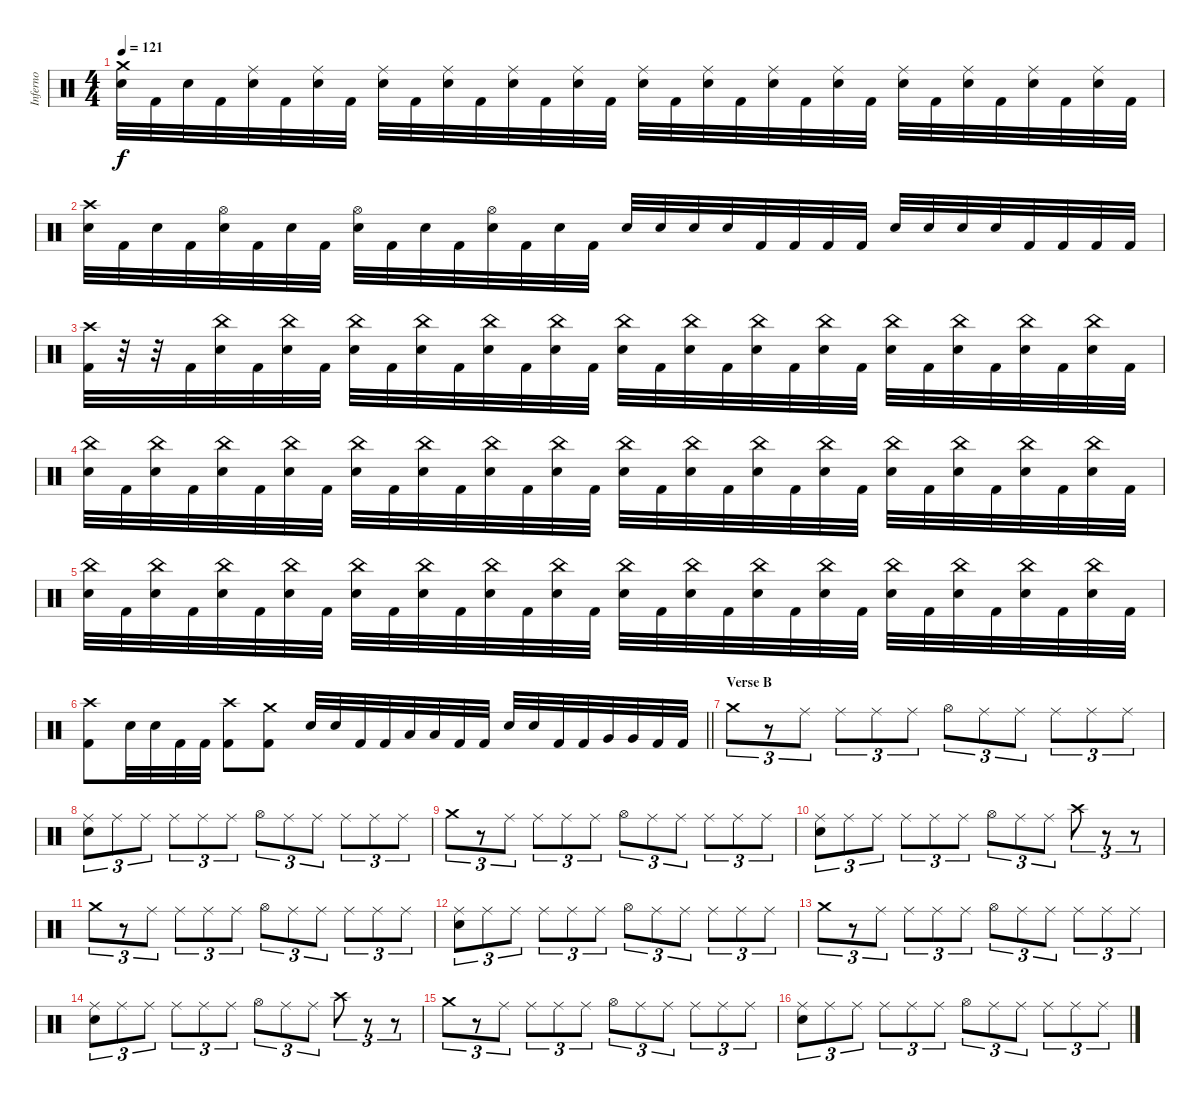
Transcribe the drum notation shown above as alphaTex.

\track ("Inferno" "Inferno") {instrument percussion}
\staff {score}
\articulation defaults
\ts (4 4)
\tempo 121
\clef neutral
\ks c
("Crash medium (hit)" "Snare (hit) 2").32{dy f} "Kick (hit) 2".32 "Snare (hit) 2".32 "Kick (hit) 2".32 ("Ride (middle)" "Snare (hit) 2").32 "Kick (hit) 2".32 ("Ride (middle)" "Snare (hit) 2").32 "Kick (hit) 2".32 ("Ride (middle)" "Snare (hit) 2").32 "Kick (hit) 2".32 ("Ride (middle)" "Snare (hit) 2").32 "Kick (hit) 2".32 ("Ride (middle)" "Snare (hit) 2").32 "Kick (hit) 2".32 ("Ride (middle)" "Snare (hit) 2").32 "Kick (hit) 2".32 ("Ride (middle)" "Snare (hit) 2").32 "Kick (hit) 2".32 ("Ride (middle)" "Snare (hit) 2").32 "Kick (hit) 2".32 ("Ride (middle)" "Snare (hit) 2").32 "Kick (hit) 2".32 ("Ride (middle)" "Snare (hit) 2").32 "Kick (hit) 2".32 ("Ride (middle)" "Snare (hit) 2").32 "Kick (hit) 2".32 ("Ride (middle)" "Snare (hit) 2").32 "Kick (hit) 2".32 ("Ride (middle)" "Snare (hit) 2").32 "Kick (hit) 2".32 ("Ride (middle)" "Snare (hit) 2").32 "Kick (hit) 2".32 |
("Crash high (hit)" "Snare (hit) 2").32 "Kick (hit) 2".32 "Snare (hit) 2".32 "Kick (hit) 2".32 ("Hi-Hat (open)" "Snare (hit) 2").32 "Kick (hit) 2".32 "Snare (hit) 2".32 "Kick (hit) 2".32 ("Hi-Hat (open)" "Snare (hit) 2").32 "Kick (hit) 2".32 "Snare (hit) 2".32 "Kick (hit) 2".32 ("Hi-Hat (open)" "Snare (hit) 2").32 "Kick (hit) 2".32 "Snare (hit) 2".32 "Kick (hit) 2".32 "Snare (hit) 2".32 "Snare (hit) 2".32 "Snare (hit) 2".32 "Snare (hit) 2".32 "Kick (hit) 2".32 "Kick (hit) 2".32 "Kick (hit) 2".32 "Kick (hit) 2".32 "Snare (hit) 2".32 "Snare (hit) 2".32 "Snare (hit) 2".32 "Snare (hit) 2".32 "Kick (hit) 2".32 "Kick (hit) 2".32 "Kick (hit) 2".32 "Kick (hit) 2".32 |
("Crash high (hit)" "Kick (hit) 2").32 r.32 r.32 "Kick (hit) 2".32 ("China (hit)" "Snare (hit) 2").32 "Kick (hit) 2".32 ("China (hit)" "Snare (hit) 2").32 "Kick (hit) 2".32 ("China (hit)" "Snare (hit) 2").32 "Kick (hit) 2".32 ("China (hit)" "Snare (hit) 2").32 "Kick (hit) 2".32 ("China (hit)" "Snare (hit) 2").32 "Kick (hit) 2".32 ("China (hit)" "Snare (hit) 2").32 "Kick (hit) 2".32 ("China (hit)" "Snare (hit) 2").32 "Kick (hit) 2".32 ("China (hit)" "Snare (hit) 2").32 "Kick (hit) 2".32 ("China (hit)" "Snare (hit) 2").32 "Kick (hit) 2".32 ("China (hit)" "Snare (hit) 2").32 "Kick (hit) 2".32 ("China (hit)" "Snare (hit) 2").32 "Kick (hit) 2".32 ("China (hit)" "Snare (hit) 2").32 "Kick (hit) 2".32 ("China (hit)" "Snare (hit) 2").32 "Kick (hit) 2".32 ("China (hit)" "Snare (hit) 2").32 "Kick (hit) 2".32 |
("China (hit)" "Snare (hit) 2").32 "Kick (hit) 2".32 ("China (hit)" "Snare (hit) 2").32 "Kick (hit) 2".32 ("China (hit)" "Snare (hit) 2").32 "Kick (hit) 2".32 ("China (hit)" "Snare (hit) 2").32 "Kick (hit) 2".32 ("China (hit)" "Snare (hit) 2").32 "Kick (hit) 2".32 ("China (hit)" "Snare (hit) 2").32 "Kick (hit) 2".32 ("China (hit)" "Snare (hit) 2").32 "Kick (hit) 2".32 ("China (hit)" "Snare (hit) 2").32 "Kick (hit) 2".32 ("China (hit)" "Snare (hit) 2").32 "Kick (hit) 2".32 ("China (hit)" "Snare (hit) 2").32 "Kick (hit) 2".32 ("China (hit)" "Snare (hit) 2").32 "Kick (hit) 2".32 ("China (hit)" "Snare (hit) 2").32 "Kick (hit) 2".32 ("China (hit)" "Snare (hit) 2").32 "Kick (hit) 2".32 ("China (hit)" "Snare (hit) 2").32 "Kick (hit) 2".32 ("China (hit)" "Snare (hit) 2").32 "Kick (hit) 2".32 ("China (hit)" "Snare (hit) 2").32 "Kick (hit) 2".32 |
("China (hit)" "Snare (hit) 2").32 "Kick (hit) 2".32 ("China (hit)" "Snare (hit) 2").32 "Kick (hit) 2".32 ("China (hit)" "Snare (hit) 2").32 "Kick (hit) 2".32 ("China (hit)" "Snare (hit) 2").32 "Kick (hit) 2".32 ("China (hit)" "Snare (hit) 2").32 "Kick (hit) 2".32 ("China (hit)" "Snare (hit) 2").32 "Kick (hit) 2".32 ("China (hit)" "Snare (hit) 2").32 "Kick (hit) 2".32 ("China (hit)" "Snare (hit) 2").32 "Kick (hit) 2".32 ("China (hit)" "Snare (hit) 2").32 "Kick (hit) 2".32 ("China (hit)" "Snare (hit) 2").32 "Kick (hit) 2".32 ("China (hit)" "Snare (hit) 2").32 "Kick (hit) 2".32 ("China (hit)" "Snare (hit) 2").32 "Kick (hit) 2".32 ("China (hit)" "Snare (hit) 2").32 "Kick (hit) 2".32 ("China (hit)" "Snare (hit) 2").32 "Kick (hit) 2".32 ("China (hit)" "Snare (hit) 2").32 "Kick (hit) 2".32 ("China (hit)" "Snare (hit) 2").32 "Kick (hit) 2".32 |
\barLineRight lightlight
("Crash high (hit)" "Kick (hit) 2").8 "Snare (hit) 2".32 "Snare (hit) 2".32 "Kick (hit) 2".32 "Kick (hit) 2".32 ("Crash high (hit)" "Kick (hit) 2").8 ("Crash medium (hit)" "Kick (hit) 2").8 "Snare (hit) 2".32 "Snare (hit) 2".32 "Kick (hit) 2".32 "Kick (hit) 2".32 "Low Tom (hit)".32 "Low Tom (hit)".32 "Kick (hit) 2".32 "Kick (hit) 2".32 "Snare (hit) 2".32 "Snare (hit) 2".32 "Kick (hit) 2".32 "Kick (hit) 2".32 "Very Low Tom (hit)".32 "Very Low Tom (hit)".32 "Kick (hit) 2".32 "Kick (hit) 2".32 |
\section ("" "Verse B")
"Crash medium (hit)".8{tu (3 2)} r.8{tu (3 2)} "Ride (middle)".8{tu (3 2)} "Ride (middle)".8{tu (3 2)} "Ride (middle)".8{tu (3 2)} "Ride (middle)".8{tu (3 2)} "Hi-Hat (open)".8{tu (3 2)} "Ride (middle)".8{tu (3 2)} "Ride (middle)".8{tu (3 2)} "Ride (middle)".8{tu (3 2)} "Ride (middle)".8{tu (3 2)} "Ride (middle)".8{tu (3 2)} |
("Ride (middle)" "Snare (hit) 2").8{tu (3 2)} "Ride (middle)".8{tu (3 2)} "Ride (middle)".8{tu (3 2)} "Ride (middle)".8{tu (3 2)} "Ride (middle)".8{tu (3 2)} "Ride (middle)".8{tu (3 2)} "Hi-Hat (open)".8{tu (3 2)} "Ride (middle)".8{tu (3 2)} "Ride (middle)".8{tu (3 2)} "Ride (middle)".8{tu (3 2)} "Ride (middle)".8{tu (3 2)} "Ride (middle)".8{tu (3 2)} |
"Crash medium (hit)".8{tu (3 2)} r.8{tu (3 2)} "Ride (middle)".8{tu (3 2)} "Ride (middle)".8{tu (3 2)} "Ride (middle)".8{tu (3 2)} "Ride (middle)".8{tu (3 2)} "Hi-Hat (open)".8{tu (3 2)} "Ride (middle)".8{tu (3 2)} "Ride (middle)".8{tu (3 2)} "Ride (middle)".8{tu (3 2)} "Ride (middle)".8{tu (3 2)} "Ride (middle)".8{tu (3 2)} |
("Ride (middle)" "Snare (hit) 2").8{tu (3 2)} "Ride (middle)".8{tu (3 2)} "Ride (middle)".8{tu (3 2)} "Ride (middle)".8{tu (3 2)} "Ride (middle)".8{tu (3 2)} "Ride (middle)".8{tu (3 2)} "Hi-Hat (open)".8{tu (3 2)} "Ride (middle)".8{tu (3 2)} "Ride (middle)".8{tu (3 2)} "Crash high (hit)".8{tu (3 2)} r.8{tu (3 2)} r.8{tu (3 2)} |
"Crash medium (hit)".8{tu (3 2)} r.8{tu (3 2)} "Ride (middle)".8{tu (3 2)} "Ride (middle)".8{tu (3 2)} "Ride (middle)".8{tu (3 2)} "Ride (middle)".8{tu (3 2)} "Hi-Hat (open)".8{tu (3 2)} "Ride (middle)".8{tu (3 2)} "Ride (middle)".8{tu (3 2)} "Ride (middle)".8{tu (3 2)} "Ride (middle)".8{tu (3 2)} "Ride (middle)".8{tu (3 2)} |
("Ride (middle)" "Snare (hit) 2").8{tu (3 2)} "Ride (middle)".8{tu (3 2)} "Ride (middle)".8{tu (3 2)} "Ride (middle)".8{tu (3 2)} "Ride (middle)".8{tu (3 2)} "Ride (middle)".8{tu (3 2)} "Hi-Hat (open)".8{tu (3 2)} "Ride (middle)".8{tu (3 2)} "Ride (middle)".8{tu (3 2)} "Ride (middle)".8{tu (3 2)} "Ride (middle)".8{tu (3 2)} "Ride (middle)".8{tu (3 2)} |
"Crash medium (hit)".8{tu (3 2)} r.8{tu (3 2)} "Ride (middle)".8{tu (3 2)} "Ride (middle)".8{tu (3 2)} "Ride (middle)".8{tu (3 2)} "Ride (middle)".8{tu (3 2)} "Hi-Hat (open)".8{tu (3 2)} "Ride (middle)".8{tu (3 2)} "Ride (middle)".8{tu (3 2)} "Ride (middle)".8{tu (3 2)} "Ride (middle)".8{tu (3 2)} "Ride (middle)".8{tu (3 2)} |
("Ride (middle)" "Snare (hit) 2").8{tu (3 2)} "Ride (middle)".8{tu (3 2)} "Ride (middle)".8{tu (3 2)} "Ride (middle)".8{tu (3 2)} "Ride (middle)".8{tu (3 2)} "Ride (middle)".8{tu (3 2)} "Hi-Hat (open)".8{tu (3 2)} "Ride (middle)".8{tu (3 2)} "Ride (middle)".8{tu (3 2)} "Crash high (hit)".8{tu (3 2)} r.8{tu (3 2)} r.8{tu (3 2)} |
"Crash medium (hit)".8{tu (3 2)} r.8{tu (3 2)} "Ride (middle)".8{tu (3 2)} "Ride (middle)".8{tu (3 2)} "Ride (middle)".8{tu (3 2)} "Ride (middle)".8{tu (3 2)} "Hi-Hat (open)".8{tu (3 2)} "Ride (middle)".8{tu (3 2)} "Ride (middle)".8{tu (3 2)} "Ride (middle)".8{tu (3 2)} "Ride (middle)".8{tu (3 2)} "Ride (middle)".8{tu (3 2)} |
("Ride (middle)" "Snare (hit) 2").8{tu (3 2)} "Ride (middle)".8{tu (3 2)} "Ride (middle)".8{tu (3 2)} "Ride (middle)".8{tu (3 2)} "Ride (middle)".8{tu (3 2)} "Ride (middle)".8{tu (3 2)} "Hi-Hat (open)".8{tu (3 2)} "Ride (middle)".8{tu (3 2)} "Ride (middle)".8{tu (3 2)} "Ride (middle)".8{tu (3 2)} "Ride (middle)".8{tu (3 2)} "Ride (middle)".8{tu (3 2)}
